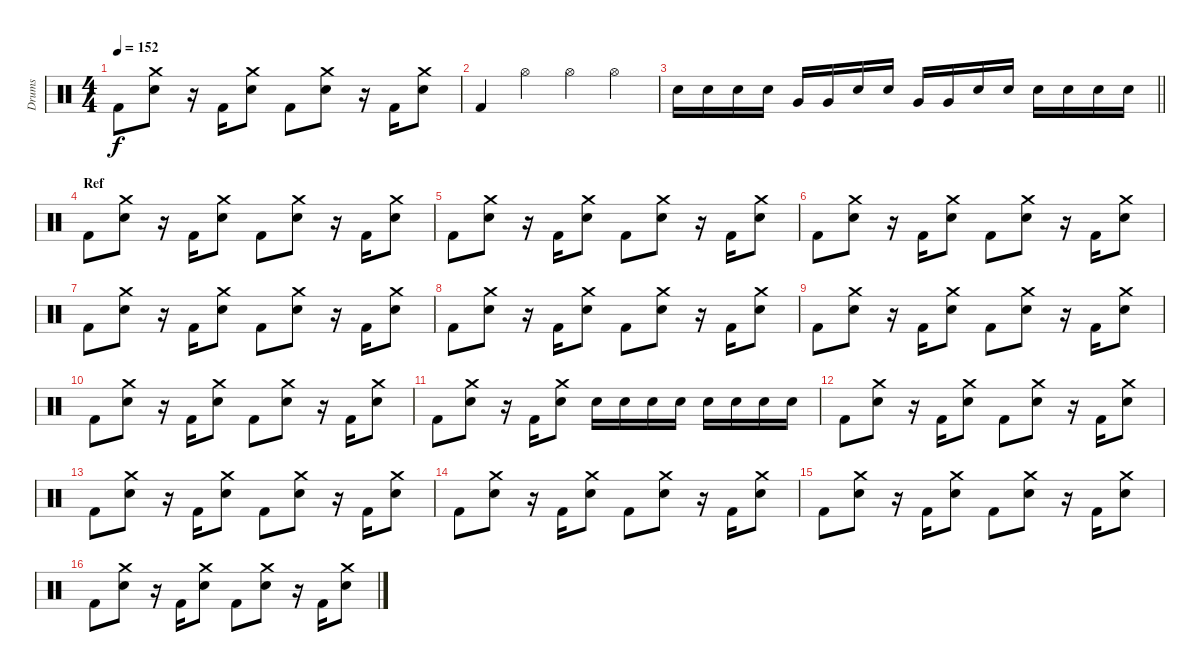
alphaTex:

\track ("Drums" "Drums") {instrument percussion}
\staff
\articulation defaults
\ts (4 4)
\tempo 152
\clef neutral
\ks c "Kick (hit) 2".8{dy f}
("Crash medium (hit)" "Electric Snare (hit)").8 r.16 "Kick (hit) 2".16 ("Crash medium (hit)" "Electric Snare (hit)").8 "Kick (hit) 2".8 ("Crash medium (hit)" "Electric Snare (hit)").8 r.16 "Kick (hit) 2".16 ("Crash medium (hit)" "Electric Snare (hit)").8 |
"Kick (hit) 2".4 "Hi-Hat (open)".4 "Hi-Hat (open)".4 "Hi-Hat (open)".4 |
\barLineRight lightlight "Electric Snare (hit)".16 "Electric Snare (hit)".16 "Electric Snare (hit)".16 "Electric Snare (hit)".16 "Very Low Tom (hit)".16 "Very Low Tom (hit)".16 "Electric Snare (hit)".16 "Electric Snare (hit)".16 "Very Low Tom (hit)".16 "Very Low Tom (hit)".16 "Electric Snare (hit)".16 "Electric Snare (hit)".16 "Electric Snare (hit)".16 "Electric Snare (hit)".16 "Electric Snare (hit)".16 "Electric Snare (hit)".16
|
\section ("" "Ref")
"Kick (hit) 2".8 ("Crash medium (hit)" "Electric Snare (hit)").8 r.16 "Kick (hit) 2".16 ("Crash medium (hit)" "Electric Snare (hit)").8 "Kick (hit) 2".8 ("Crash medium (hit)" "Electric Snare (hit)").8 r.16 "Kick (hit) 2".16 ("Crash medium (hit)" "Electric Snare (hit)").8 |
"Kick (hit) 2".8 ("Crash medium (hit)" "Electric Snare (hit)").8 r.16 "Kick (hit) 2".16 ("Crash medium (hit)" "Electric Snare (hit)").8 "Kick (hit) 2".8 ("Crash medium (hit)" "Electric Snare (hit)").8 r.16 "Kick (hit) 2".16 ("Crash medium (hit)" "Electric Snare (hit)").8 |
"Kick (hit) 2".8 ("Crash medium (hit)" "Electric Snare (hit)").8 r.16 "Kick (hit) 2".16 ("Crash medium (hit)" "Electric Snare (hit)").8 "Kick (hit) 2".8 ("Crash medium (hit)" "Electric Snare (hit)").8 r.16 "Kick (hit) 2".16 ("Crash medium (hit)" "Electric Snare (hit)").8 |
"Kick (hit) 2".8 ("Crash medium (hit)" "Electric Snare (hit)").8 r.16 "Kick (hit) 2".16 ("Crash medium (hit)" "Electric Snare (hit)").8 "Kick (hit) 2".8 ("Crash medium (hit)" "Electric Snare (hit)").8 r.16 "Kick (hit) 2".16 ("Crash medium (hit)" "Electric Snare (hit)").8 |
"Kick (hit) 2".8 ("Crash medium (hit)" "Electric Snare (hit)").8 r.16 "Kick (hit) 2".16 ("Crash medium (hit)" "Electric Snare (hit)").8 "Kick (hit) 2".8 ("Crash medium (hit)" "Electric Snare (hit)").8 r.16 "Kick (hit) 2".16 ("Crash medium (hit)" "Electric Snare (hit)").8 |
"Kick (hit) 2".8 ("Crash medium (hit)" "Electric Snare (hit)").8 r.16 "Kick (hit) 2".16 ("Crash medium (hit)" "Electric Snare (hit)").8 "Kick (hit) 2".8 ("Crash medium (hit)" "Electric Snare (hit)").8 r.16 "Kick (hit) 2".16 ("Crash medium (hit)" "Electric Snare (hit)").8 |
"Kick (hit) 2".8 ("Crash medium (hit)" "Electric Snare (hit)").8 r.16 "Kick (hit) 2".16 ("Crash medium (hit)" "Electric Snare (hit)").8 "Kick (hit) 2".8 ("Crash medium (hit)" "Electric Snare (hit)").8 r.16 "Kick (hit) 2".16 ("Crash medium (hit)" "Electric Snare (hit)").8 |
"Kick (hit) 2".8 ("Crash medium (hit)" "Electric Snare (hit)").8 r.16 "Kick (hit) 2".16 ("Crash medium (hit)" "Electric Snare (hit)").8 "Electric Snare (hit)".16 "Electric Snare (hit)".16 "Electric Snare (hit)".16 "Electric Snare (hit)".16 "Electric Snare (hit)".16 "Electric Snare (hit)".16 "Electric Snare (hit)".16 "Electric Snare (hit)".16 |
"Kick (hit) 2".8 ("Crash medium (hit)" "Electric Snare (hit)").8 r.16 "Kick (hit) 2".16 ("Crash medium (hit)" "Electric Snare (hit)").8 "Kick (hit) 2".8 ("Crash medium (hit)" "Electric Snare (hit)").8 r.16 "Kick (hit) 2".16 ("Crash medium (hit)" "Electric Snare (hit)").8 |
"Kick (hit) 2".8 ("Crash medium (hit)" "Electric Snare (hit)").8 r.16 "Kick (hit) 2".16 ("Crash medium (hit)" "Electric Snare (hit)").8 "Kick (hit) 2".8 ("Crash medium (hit)" "Electric Snare (hit)").8 r.16 "Kick (hit) 2".16 ("Crash medium (hit)" "Electric Snare (hit)").8 |
"Kick (hit) 2".8 ("Crash medium (hit)" "Electric Snare (hit)").8 r.16 "Kick (hit) 2".16 ("Crash medium (hit)" "Electric Snare (hit)").8 "Kick (hit) 2".8 ("Crash medium (hit)" "Electric Snare (hit)").8 r.16 "Kick (hit) 2".16 ("Crash medium (hit)" "Electric Snare (hit)").8 |
"Kick (hit) 2".8 ("Crash medium (hit)" "Electric Snare (hit)").8 r.16 "Kick (hit) 2".16 ("Crash medium (hit)" "Electric Snare (hit)").8 "Kick (hit) 2".8 ("Crash medium (hit)" "Electric Snare (hit)").8 r.16 "Kick (hit) 2".16 ("Crash medium (hit)" "Electric Snare (hit)").8 |
"Kick (hit) 2".8 ("Crash medium (hit)" "Electric Snare (hit)").8 r.16 "Kick (hit) 2".16 ("Crash medium (hit)" "Electric Snare (hit)").8 "Kick (hit) 2".8 ("Crash medium (hit)" "Electric Snare (hit)").8 r.16 "Kick (hit) 2".16 ("Crash medium (hit)" "Electric Snare (hit)").8
